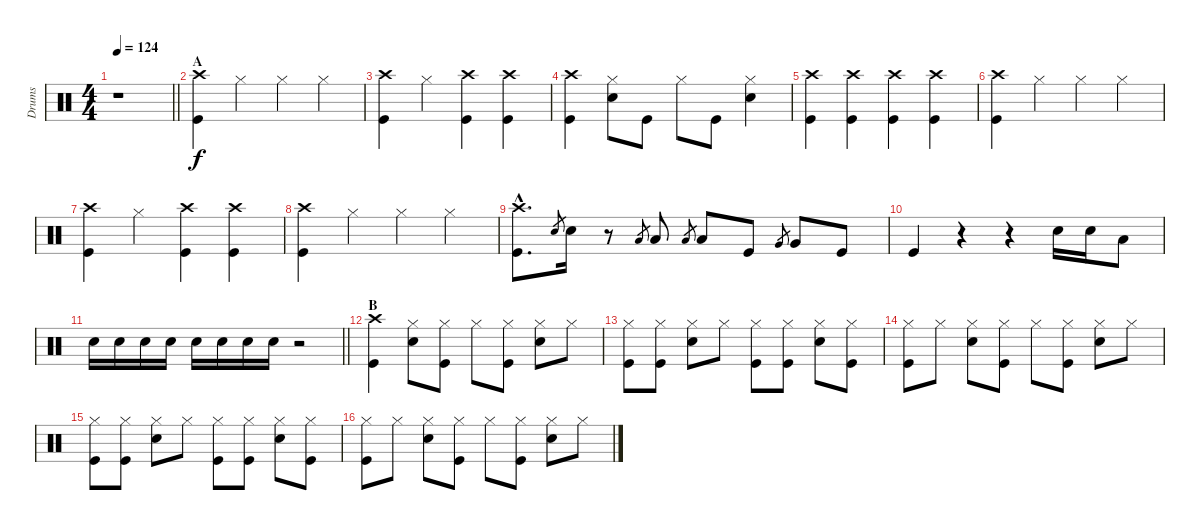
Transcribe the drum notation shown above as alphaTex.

\track ("Drums" "Drums") {instrument percussion}
\staff {score}
\articulation defaults
\ts (4 4)
\tempo 124
\clef neutral
\barLineRight lightlight
\ks c
r.1{dy f} |
\section ("" "A")
("Crash high (hit)" "Kick (hit)").4 "Hi-Hat (closed)".4 "Hi-Hat (closed)".4 "Hi-Hat (closed)".4 |
("Crash high (hit)" "Kick (hit)").4 "Hi-Hat (closed)".4 ("Crash high (hit)" "Kick (hit)").4 ("Crash high (hit)" "Kick (hit)").4 |
("Crash high (hit)" "Kick (hit)").4 ("Hi-Hat (closed)" "Electric Snare (hit)").8 "Kick (hit)".8 "Hi-Hat (closed)".8 "Kick (hit)".8 ("Hi-Hat (closed)" "Electric Snare (hit)").4 |
("Crash high (hit)" "Kick (hit)").4 ("Crash high (hit)" "Kick (hit)").4 ("Crash high (hit)" "Kick (hit)").4 ("Crash high (hit)" "Kick (hit)").4 |
("Crash high (hit)" "Kick (hit)").4 "Hi-Hat (closed)".4 "Hi-Hat (closed)".4 "Hi-Hat (closed)".4 |
("Crash high (hit)" "Kick (hit)").4 "Hi-Hat (closed)".4 ("Crash high (hit)" "Kick (hit)").4 ("Crash high (hit)" "Kick (hit)").4 |
("Crash high (hit)" "Kick (hit)").4 "Hi-Hat (closed)".4 "Hi-Hat (closed)".4 "Hi-Hat (closed)".4 |
("Crash high (hit)"{hac} "Kick (hit)"{hac}).8{d} "Electric Snare (hit)".8{gr} "Electric Snare (hit)".16 r.8 "Low Tom (hit)".8{gr} "Low Tom (hit)".8 "Low Tom (hit)".8{gr} "Low Tom (hit)".8 "Kick (hit)".8 "Very Low Tom (hit)".8{gr} "Very Low Tom (hit)".8 "Kick (hit)".8 |
"Kick (hit)".4 r.4 r.4 "Electric Snare (hit)".16 "Electric Snare (hit)".16 "Low Tom (hit)".8 |
\barLineRight lightlight "Electric Snare (hit)".16 "Electric Snare (hit)".16 "Electric Snare (hit)".16 "Electric Snare (hit)".16 "Electric Snare (hit)".16 "Electric Snare (hit)".16 "Electric Snare (hit)".16 "Electric Snare (hit)".16
r.2 |
\section ("" "B")
("Crash high (hit)" "Kick (hit)").4 ("Hi-Hat (closed)" "Electric Snare (hit)").8 ("Hi-Hat (closed)" "Kick (hit)").8 "Hi-Hat (closed)".8 ("Hi-Hat (closed)" "Kick (hit)").8 ("Hi-Hat (closed)" "Electric Snare (hit)").8 "Hi-Hat (closed)".8 |
("Hi-Hat (closed)" "Kick (hit)").8 ("Hi-Hat (closed)" "Kick (hit)").8 ("Hi-Hat (closed)" "Electric Snare (hit)").8 "Hi-Hat (closed)".8 ("Hi-Hat (closed)" "Kick (hit)").8 ("Hi-Hat (closed)" "Kick (hit)").8 ("Hi-Hat (closed)" "Electric Snare (hit)").8 ("Hi-Hat (closed)" "Kick (hit)").8 |
("Hi-Hat (closed)" "Kick (hit)").8 "Hi-Hat (closed)".8 ("Hi-Hat (closed)" "Electric Snare (hit)").8 ("Hi-Hat (closed)" "Kick (hit)").8 "Hi-Hat (closed)".8 ("Hi-Hat (closed)" "Kick (hit)").8 ("Hi-Hat (closed)" "Electric Snare (hit)").8 "Hi-Hat (closed)".8 |
("Hi-Hat (closed)" "Kick (hit)").8 ("Hi-Hat (closed)" "Kick (hit)").8 ("Hi-Hat (closed)" "Electric Snare (hit)").8 "Hi-Hat (closed)".8 ("Hi-Hat (closed)" "Kick (hit)").8 ("Hi-Hat (closed)" "Kick (hit)").8 ("Hi-Hat (closed)" "Electric Snare (hit)").8 ("Hi-Hat (closed)" "Kick (hit)").8 |
("Hi-Hat (closed)" "Kick (hit)").8 "Hi-Hat (closed)".8 ("Hi-Hat (closed)" "Electric Snare (hit)").8 ("Hi-Hat (closed)" "Kick (hit)").8 "Hi-Hat (closed)".8 ("Hi-Hat (closed)" "Kick (hit)").8 ("Hi-Hat (closed)" "Electric Snare (hit)").8 "Hi-Hat (closed)".8
